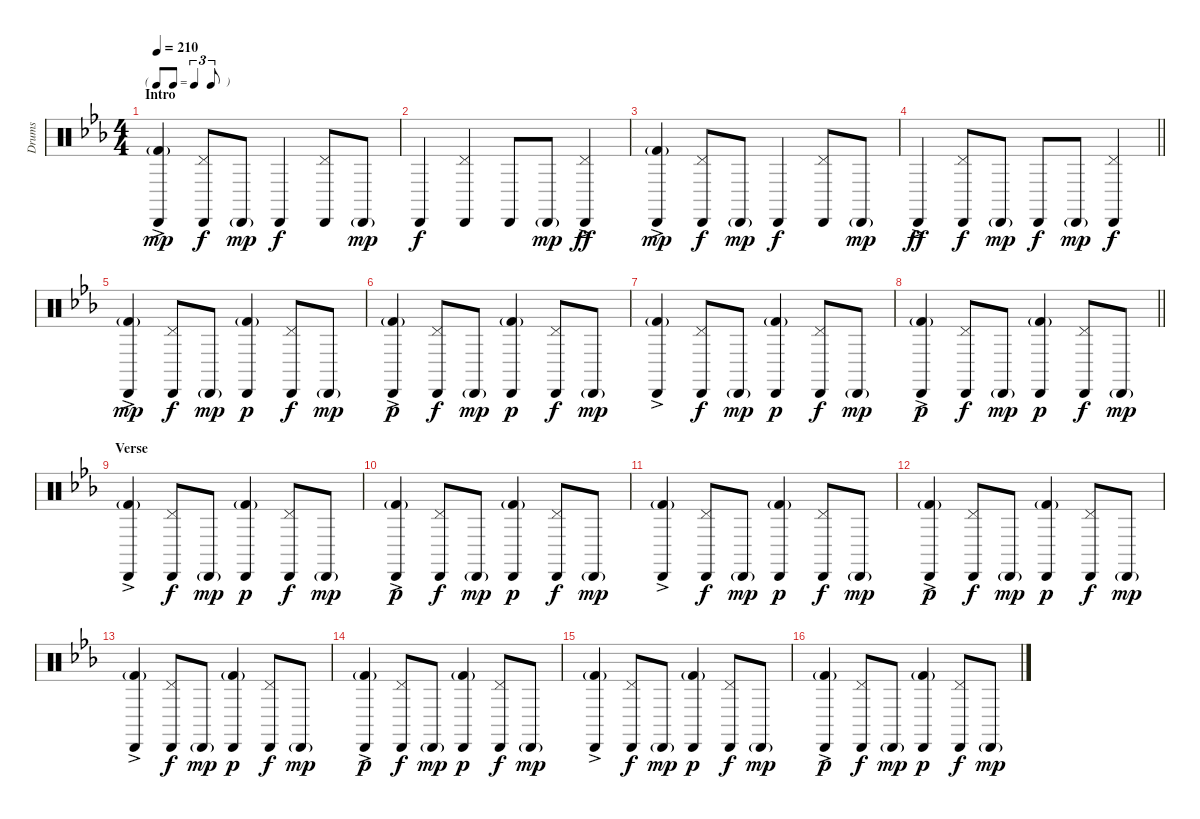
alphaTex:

\track ("Drums" "Drums") {instrument percussion}
\staff {score}
\articulation defaults
\ts (4 4)
\tf triplet8th
\section ("" "Intro")
\tempo 210
\clef neutral
\ks eb
("Cabasa (hit)"{ac} "Kick (hit) 2"{g}).4{dy mp} ("Cabasa (hit)" "Pedal Hi-Hat (hit)").8{dy f} "Cabasa (hit)"{g}.8{dy mp} "Cabasa (hit)".4{dy f} ("Cabasa (hit)" "Pedal Hi-Hat (hit)").8 "Cabasa (hit)"{g}.8{dy mp} |
"Cabasa (hit)".4{dy f} ("Cabasa (hit)" "Pedal Hi-Hat (hit)").4 "Cabasa (hit)".8 "Cabasa (hit)"{g}.8{dy mp} ("Cabasa (hit)"{ac} "Pedal Hi-Hat (hit)").4{dy ff} |
("Cabasa (hit)"{ac} "Kick (hit) 2"{g}).4{dy mp} ("Cabasa (hit)" "Pedal Hi-Hat (hit)").8{dy f} "Cabasa (hit)"{g}.8{dy mp} "Cabasa (hit)".4{dy f} ("Cabasa (hit)" "Pedal Hi-Hat (hit)").8 "Cabasa (hit)"{g}.8{dy mp} |
\barLineRight lightlight "Cabasa (hit)"{ac}.4{dy ff}
("Cabasa (hit)" "Pedal Hi-Hat (hit)").8{dy f} "Cabasa (hit)"{g}.8{dy mp} "Cabasa (hit)".8{dy f} "Cabasa (hit)"{g}.8{dy mp} ("Cabasa (hit)" "Pedal Hi-Hat (hit)").4{dy f} |
("Cabasa (hit)"{ac} "Kick (hit) 2"{g}).4{dy mp} ("Cabasa (hit)" "Pedal Hi-Hat (hit)").8{dy f} "Cabasa (hit)"{g}.8{dy mp} ("Cabasa (hit)" "Kick (hit) 2"{g}).4{dy p} ("Cabasa (hit)" "Pedal Hi-Hat (hit)").8{dy f} "Cabasa (hit)"{g}.8{dy mp} |
("Cabasa (hit)"{ac} "Kick (hit) 2"{g}).4{dy p} ("Cabasa (hit)" "Pedal Hi-Hat (hit)").8{dy f} "Cabasa (hit)"{g}.8{dy mp} ("Cabasa (hit)" "Kick (hit) 2"{g}).4{dy p} ("Cabasa (hit)" "Pedal Hi-Hat (hit)").8{dy f} "Cabasa (hit)"{g}.8{dy mp} |
("Cabasa (hit)"{ac} "Kick (hit) 2"{g}).4 ("Cabasa (hit)" "Pedal Hi-Hat (hit)").8{dy f} "Cabasa (hit)"{g}.8{dy mp} ("Cabasa (hit)" "Kick (hit) 2"{g}).4{dy p} ("Cabasa (hit)" "Pedal Hi-Hat (hit)").8{dy f} "Cabasa (hit)"{g}.8{dy mp} |
\barLineRight lightlight
("Cabasa (hit)"{ac} "Kick (hit) 2"{g}).4{dy p} ("Cabasa (hit)" "Pedal Hi-Hat (hit)").8{dy f} "Cabasa (hit)"{g}.8{dy mp} ("Cabasa (hit)" "Kick (hit) 2"{g}).4{dy p} ("Cabasa (hit)" "Pedal Hi-Hat (hit)").8{dy f} "Cabasa (hit)"{g}.8{dy mp} |
\section ("" "Verse")
("Cabasa (hit)"{ac} "Kick (hit) 2"{g}).4 ("Cabasa (hit)" "Pedal Hi-Hat (hit)").8{dy f} "Cabasa (hit)"{g}.8{dy mp} ("Cabasa (hit)" "Kick (hit) 2"{g}).4{dy p} ("Cabasa (hit)" "Pedal Hi-Hat (hit)").8{dy f} "Cabasa (hit)"{g}.8{dy mp} |
("Cabasa (hit)"{ac} "Kick (hit) 2"{g}).4{dy p} ("Cabasa (hit)" "Pedal Hi-Hat (hit)").8{dy f} "Cabasa (hit)"{g}.8{dy mp} ("Cabasa (hit)" "Kick (hit) 2"{g}).4{dy p} ("Cabasa (hit)" "Pedal Hi-Hat (hit)").8{dy f} "Cabasa (hit)"{g}.8{dy mp} |
("Cabasa (hit)"{ac} "Kick (hit) 2"{g}).4 ("Cabasa (hit)" "Pedal Hi-Hat (hit)").8{dy f} "Cabasa (hit)"{g}.8{dy mp} ("Cabasa (hit)" "Kick (hit) 2"{g}).4{dy p} ("Cabasa (hit)" "Pedal Hi-Hat (hit)").8{dy f} "Cabasa (hit)"{g}.8{dy mp} |
("Cabasa (hit)"{ac} "Kick (hit) 2"{g}).4{dy p} ("Cabasa (hit)" "Pedal Hi-Hat (hit)").8{dy f} "Cabasa (hit)"{g}.8{dy mp} ("Cabasa (hit)" "Kick (hit) 2"{g}).4{dy p} ("Cabasa (hit)" "Pedal Hi-Hat (hit)").8{dy f} "Cabasa (hit)"{g}.8{dy mp} |
("Cabasa (hit)"{ac} "Kick (hit) 2"{g}).4 ("Cabasa (hit)" "Pedal Hi-Hat (hit)").8{dy f} "Cabasa (hit)"{g}.8{dy mp} ("Cabasa (hit)" "Kick (hit) 2"{g}).4{dy p} ("Cabasa (hit)" "Pedal Hi-Hat (hit)").8{dy f} "Cabasa (hit)"{g}.8{dy mp} |
("Cabasa (hit)"{ac} "Kick (hit) 2"{g}).4{dy p} ("Cabasa (hit)" "Pedal Hi-Hat (hit)").8{dy f} "Cabasa (hit)"{g}.8{dy mp} ("Cabasa (hit)" "Kick (hit) 2"{g}).4{dy p} ("Cabasa (hit)" "Pedal Hi-Hat (hit)").8{dy f} "Cabasa (hit)"{g}.8{dy mp} |
("Cabasa (hit)"{ac} "Kick (hit) 2"{g}).4 ("Cabasa (hit)" "Pedal Hi-Hat (hit)").8{dy f} "Cabasa (hit)"{g}.8{dy mp} ("Cabasa (hit)" "Kick (hit) 2"{g}).4{dy p} ("Cabasa (hit)" "Pedal Hi-Hat (hit)").8{dy f} "Cabasa (hit)"{g}.8{dy mp} |
("Cabasa (hit)"{ac} "Kick (hit) 2"{g}).4{dy p} ("Cabasa (hit)" "Pedal Hi-Hat (hit)").8{dy f} "Cabasa (hit)"{g}.8{dy mp} ("Cabasa (hit)" "Kick (hit) 2"{g}).4{dy p} ("Cabasa (hit)" "Pedal Hi-Hat (hit)").8{dy f} "Cabasa (hit)"{g}.8{dy mp}
